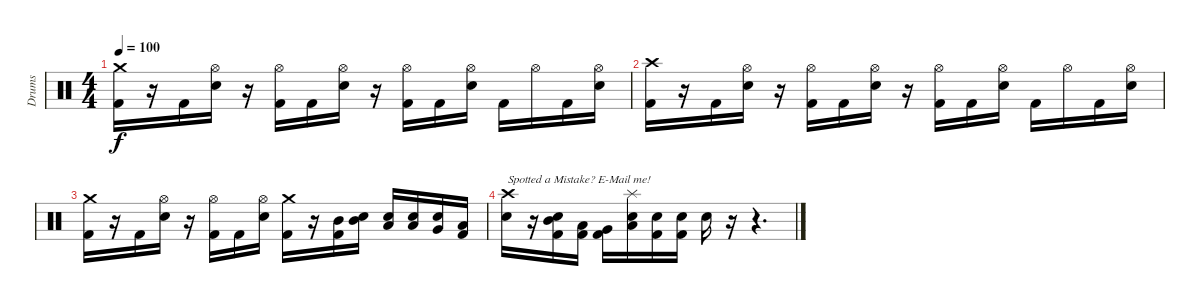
\track ("Drums" "Drums") {instrument percussion}
\staff {score}
\articulation defaults
\ts (4 4)
\tempo 100
\clef neutral
\ks c
("Crash medium (hit)" "Kick (hit) 2").16{dy f} r.16 "Kick (hit) 2".16 ("Hi-Hat (open)" "Snare (hit) 2").16 r.16 ("Hi-Hat (open)" "Kick (hit) 2").16 "Kick (hit) 2".16 ("Hi-Hat (open)" "Snare (hit) 2").16 r.16 ("Hi-Hat (open)" "Kick (hit) 2").16 "Kick (hit) 2".16 ("Hi-Hat (open)" "Snare (hit) 2").16 "Kick (hit) 2".16 "Hi-Hat (open)".16 "Kick (hit) 2".16 ("Hi-Hat (open)" "Snare (hit) 2").16 |
("Crash high (hit)" "Kick (hit) 2").16 r.16 "Kick (hit) 2".16 ("Hi-Hat (open)" "Snare (hit) 2").16 r.16 ("Hi-Hat (open)" "Kick (hit) 2").16 "Kick (hit) 2".16 ("Hi-Hat (open)" "Snare (hit) 2").16 r.16 ("Hi-Hat (open)" "Kick (hit) 2").16 "Kick (hit) 2".16 ("Hi-Hat (open)" "Snare (hit) 2").16 "Kick (hit) 2".16 "Hi-Hat (open)".16 "Kick (hit) 2".16 ("Hi-Hat (open)" "Snare (hit) 2").16 |
("Crash medium (hit)" "Kick (hit) 2").16 r.16 "Kick (hit) 2".16 ("Hi-Hat (open)" "Snare (hit) 2").16 r.16 ("Hi-Hat (open)" "Kick (hit) 2").16 "Kick (hit) 2".16 ("Hi-Hat (open)" "Snare (hit) 2").16 ("Crash medium (hit)" "Kick (hit) 2").16 r.16 ("Mid Tom (hit)" "Kick (hit) 2").16 ("Mid Tom (hit)" "Snare (hit) 2").16 ("Low Tom (hit)" "Snare (hit) 2").16 ("Low Tom (hit)" "Snare (hit) 2").16 ("Very Low Tom (hit)" "Snare (hit) 2").16 ("Low Floor Tom (hit)" "Kick (hit) 2").16 |
("Crash high (hit)" "Snare (hit) 2").16{txt "Spotted a Mistake? E-Mail me!"} r.16 ("Mid Tom (hit)" "Snare (hit) 2" "Kick (hit) 2").16 ("Low Tom (hit)" "Kick (hit) 2").16 ("Very Low Tom (hit)" "Kick (hit) 2").16 ("Splash (hit)" "Low Floor Tom (hit)" "Snare (hit) 2").16 ("Snare (hit) 2" "Kick (hit) 2").16 ("Snare (hit) 2" "Kick (hit) 2").16 "Snare (hit) 2".16 r.16 r.4{d}
